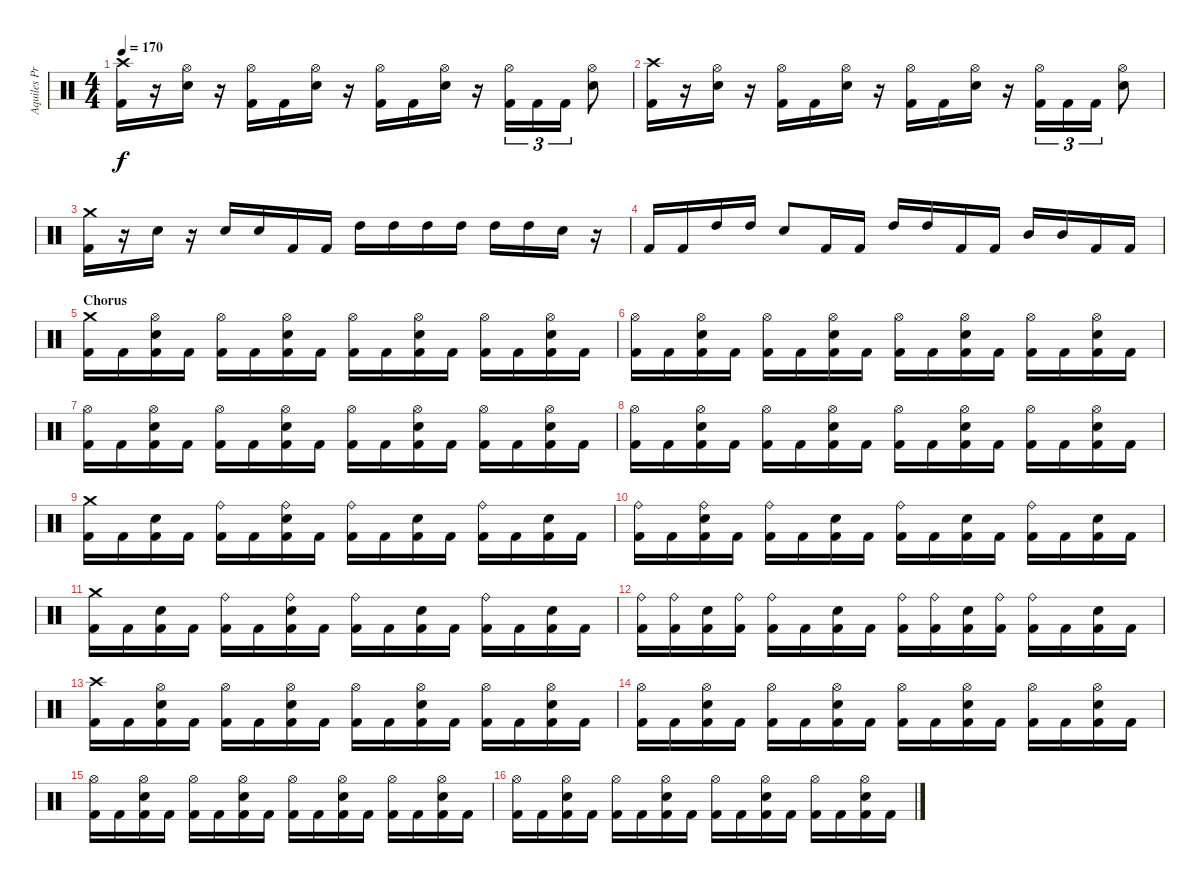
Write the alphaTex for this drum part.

\track ("Aquiles Priester" "Aquiles Pr") {instrument percussion}
\staff {score}
\articulation defaults
\ts (4 4)
\tempo 170
\clef neutral
\ks c
("Kick (hit) 2" "Crash high (hit)").16{dy f} r.16 ("Electric Snare (hit)" "Hi-Hat (open)").16 r.16 ("Kick (hit) 2" "Hi-Hat (open)").16 "Kick (hit) 2".16 ("Electric Snare (hit)" "Hi-Hat (open)").16 r.16 ("Kick (hit) 2" "Hi-Hat (open)").16 "Kick (hit) 2".16 ("Electric Snare (hit)" "Hi-Hat (open)").16 r.16 ("Hi-Hat (open)" "Kick (hit) 2").16{tu (3 2)} "Kick (hit) 2".16{tu (3 2)} "Kick (hit) 2".16{tu (3 2)} ("Hi-Hat (open)" "Electric Snare (hit)").8 |
("Crash high (hit)" "Kick (hit) 2").16 r.16 ("Hi-Hat (open)" "Electric Snare (hit)").16 r.16 ("Hi-Hat (open)" "Kick (hit) 2").16 "Kick (hit) 2".16 ("Hi-Hat (open)" "Electric Snare (hit)").16 r.16 ("Hi-Hat (open)" "Kick (hit) 2").16 "Kick (hit) 2".16 ("Hi-Hat (open)" "Electric Snare (hit)").16 r.16 ("Hi-Hat (open)" "Kick (hit) 2").16{tu (3 2)} "Kick (hit) 2".16{tu (3 2)} "Kick (hit) 2".16{tu (3 2)} ("Hi-Hat (open)" "Electric Snare (hit)").8 |
("Crash medium (hit)" "Kick (hit) 2").16 r.16 "Electric Snare (hit)".16 r.16 "Electric Snare (hit)".16 "Electric Snare (hit)".16 "Kick (hit) 2".16 "Kick (hit) 2".16 "High Tom (hit)".16 "High Tom (hit)".16 "High Tom (hit)".16 "High Tom (hit)".16 "High Tom (hit)".16 "High Tom (hit)".16 "Snare (hit) 2".16 r.16 |
"Kick (hit) 2".16 "Kick (hit) 2".16 "High Tom (hit)".16 "High Tom (hit)".16 "Electric Snare (hit)".8 "Kick (hit) 2".16 "Kick (hit) 2".16 "High Tom (hit)".16 "High Tom (hit)".16 "Kick (hit) 2".16 "Kick (hit) 2".16 "Mid Tom (hit)".16 "Mid Tom (hit)".16 "Kick (hit) 2".16 "Kick (hit) 2".16 |
\section ("" "Chorus")
("Crash medium (hit)" "Kick (hit) 2").16 "Kick (hit) 2".16 ("Hi-Hat (open)" "Electric Snare (hit)" "Kick (hit) 2").16 "Kick (hit) 2".16 ("Hi-Hat (open)" "Kick (hit) 2").16 "Kick (hit) 2".16 ("Hi-Hat (open)" "Electric Snare (hit)" "Kick (hit) 2").16 "Kick (hit) 2".16 ("Hi-Hat (open)" "Kick (hit) 2").16 "Kick (hit) 2".16 ("Hi-Hat (open)" "Electric Snare (hit)" "Kick (hit) 2").16 "Kick (hit) 2".16 ("Hi-Hat (open)" "Kick (hit) 2").16 "Kick (hit) 2".16 ("Hi-Hat (open)" "Electric Snare (hit)" "Kick (hit) 2").16 "Kick (hit) 2".16 |
("Hi-Hat (open)" "Kick (hit) 2").16 "Kick (hit) 2".16 ("Hi-Hat (open)" "Electric Snare (hit)" "Kick (hit) 2").16 "Kick (hit) 2".16 ("Hi-Hat (open)" "Kick (hit) 2").16 "Kick (hit) 2".16 ("Hi-Hat (open)" "Electric Snare (hit)" "Kick (hit) 2").16 "Kick (hit) 2".16 ("Hi-Hat (open)" "Kick (hit) 2").16 "Kick (hit) 2".16 ("Hi-Hat (open)" "Electric Snare (hit)" "Kick (hit) 2").16 "Kick (hit) 2".16 ("Hi-Hat (open)" "Kick (hit) 2").16 "Kick (hit) 2".16 ("Hi-Hat (open)" "Electric Snare (hit)" "Kick (hit) 2").16 "Kick (hit) 2".16 |
("Hi-Hat (open)" "Kick (hit) 2").16 "Kick (hit) 2".16 ("Hi-Hat (open)" "Electric Snare (hit)" "Kick (hit) 2").16 "Kick (hit) 2".16 ("Hi-Hat (open)" "Kick (hit) 2").16 "Kick (hit) 2".16 ("Hi-Hat (open)" "Electric Snare (hit)" "Kick (hit) 2").16 "Kick (hit) 2".16 ("Hi-Hat (open)" "Kick (hit) 2").16 "Kick (hit) 2".16 ("Hi-Hat (open)" "Electric Snare (hit)" "Kick (hit) 2").16 "Kick (hit) 2".16 ("Hi-Hat (open)" "Kick (hit) 2").16 "Kick (hit) 2".16 ("Hi-Hat (open)" "Electric Snare (hit)" "Kick (hit) 2").16 "Kick (hit) 2".16 |
("Hi-Hat (open)" "Kick (hit) 2").16 "Kick (hit) 2".16 ("Hi-Hat (open)" "Electric Snare (hit)" "Kick (hit) 2").16 "Kick (hit) 2".16 ("Hi-Hat (open)" "Kick (hit) 2").16 "Kick (hit) 2".16 ("Hi-Hat (open)" "Electric Snare (hit)" "Kick (hit) 2").16 "Kick (hit) 2".16 ("Hi-Hat (open)" "Kick (hit) 2").16 "Kick (hit) 2".16 ("Hi-Hat (open)" "Electric Snare (hit)" "Kick (hit) 2").16 "Kick (hit) 2".16 ("Hi-Hat (open)" "Kick (hit) 2").16 "Kick (hit) 2".16 ("Hi-Hat (open)" "Electric Snare (hit)" "Kick (hit) 2").16 "Kick (hit) 2".16 |
("Crash medium (hit)" "Kick (hit) 2").16 "Kick (hit) 2".16 ("Electric Snare (hit)" "Kick (hit) 2").16 "Kick (hit) 2".16 ("Ride (bell)" "Kick (hit) 2").16 "Kick (hit) 2".16 ("Ride (bell)" "Electric Snare (hit)" "Kick (hit) 2").16 "Kick (hit) 2".16 ("Ride (bell)" "Kick (hit) 2").16 "Kick (hit) 2".16 ("Electric Snare (hit)" "Kick (hit) 2").16 "Kick (hit) 2".16 ("Ride (bell)" "Kick (hit) 2").16 "Kick (hit) 2".16 ("Electric Snare (hit)" "Kick (hit) 2").16 "Kick (hit) 2".16 |
("Ride (bell)" "Kick (hit) 2").16 "Kick (hit) 2".16 ("Ride (bell)" "Electric Snare (hit)" "Kick (hit) 2").16 "Kick (hit) 2".16 ("Ride (bell)" "Kick (hit) 2").16 "Kick (hit) 2".16 ("Electric Snare (hit)" "Kick (hit) 2").16 "Kick (hit) 2".16 ("Ride (bell)" "Kick (hit) 2").16 "Kick (hit) 2".16 ("Electric Snare (hit)" "Kick (hit) 2").16 "Kick (hit) 2".16 ("Ride (bell)" "Kick (hit) 2").16 "Kick (hit) 2".16 ("Electric Snare (hit)" "Kick (hit) 2").16 "Kick (hit) 2".16 |
("Crash medium (hit)" "Kick (hit) 2").16 "Kick (hit) 2".16 ("Electric Snare (hit)" "Kick (hit) 2").16 "Kick (hit) 2".16 ("Ride (bell)" "Kick (hit) 2").16 "Kick (hit) 2".16 ("Ride (bell)" "Electric Snare (hit)" "Kick (hit) 2").16 "Kick (hit) 2".16 ("Ride (bell)" "Kick (hit) 2").16 "Kick (hit) 2".16 ("Electric Snare (hit)" "Kick (hit) 2").16 "Kick (hit) 2".16 ("Ride (bell)" "Kick (hit) 2").16 "Kick (hit) 2".16 ("Electric Snare (hit)" "Kick (hit) 2").16 "Kick (hit) 2".16 |
("Ride (bell)" "Kick (hit) 2").16 ("Ride (bell)" "Kick (hit) 2").16 ("Electric Snare (hit)" "Kick (hit) 2").16 ("Ride (bell)" "Kick (hit) 2").16 ("Ride (bell)" "Kick (hit) 2").16 "Kick (hit) 2".16 ("Electric Snare (hit)" "Kick (hit) 2").16 "Kick (hit) 2".16 ("Ride (bell)" "Kick (hit) 2").16 ("Ride (bell)" "Kick (hit) 2").16 ("Electric Snare (hit)" "Kick (hit) 2").16 ("Ride (bell)" "Kick (hit) 2").16 ("Ride (bell)" "Kick (hit) 2").16 "Kick (hit) 2".16 ("Electric Snare (hit)" "Kick (hit) 2").16 "Kick (hit) 2".16 |
("Crash high (hit)" "Kick (hit) 2").16 "Kick (hit) 2".16 ("Hi-Hat (open)" "Electric Snare (hit)" "Kick (hit) 2").16 "Kick (hit) 2".16 ("Hi-Hat (open)" "Kick (hit) 2").16 "Kick (hit) 2".16 ("Hi-Hat (open)" "Electric Snare (hit)" "Kick (hit) 2").16 "Kick (hit) 2".16 ("Hi-Hat (open)" "Kick (hit) 2").16 "Kick (hit) 2".16 ("Hi-Hat (open)" "Electric Snare (hit)" "Kick (hit) 2").16 "Kick (hit) 2".16 ("Hi-Hat (open)" "Kick (hit) 2").16 "Kick (hit) 2".16 ("Hi-Hat (open)" "Electric Snare (hit)" "Kick (hit) 2").16 "Kick (hit) 2".16 |
("Hi-Hat (open)" "Kick (hit) 2").16 "Kick (hit) 2".16 ("Hi-Hat (open)" "Electric Snare (hit)" "Kick (hit) 2").16 "Kick (hit) 2".16 ("Hi-Hat (open)" "Kick (hit) 2").16 "Kick (hit) 2".16 ("Hi-Hat (open)" "Electric Snare (hit)" "Kick (hit) 2").16 "Kick (hit) 2".16 ("Hi-Hat (open)" "Kick (hit) 2").16 "Kick (hit) 2".16 ("Hi-Hat (open)" "Electric Snare (hit)" "Kick (hit) 2").16 "Kick (hit) 2".16 ("Hi-Hat (open)" "Kick (hit) 2").16 "Kick (hit) 2".16 ("Hi-Hat (open)" "Electric Snare (hit)" "Kick (hit) 2").16 "Kick (hit) 2".16 |
("Hi-Hat (open)" "Kick (hit) 2").16 "Kick (hit) 2".16 ("Hi-Hat (open)" "Electric Snare (hit)" "Kick (hit) 2").16 "Kick (hit) 2".16 ("Hi-Hat (open)" "Kick (hit) 2").16 "Kick (hit) 2".16 ("Hi-Hat (open)" "Electric Snare (hit)" "Kick (hit) 2").16 "Kick (hit) 2".16 ("Hi-Hat (open)" "Kick (hit) 2").16 "Kick (hit) 2".16 ("Hi-Hat (open)" "Electric Snare (hit)" "Kick (hit) 2").16 "Kick (hit) 2".16 ("Hi-Hat (open)" "Kick (hit) 2").16 "Kick (hit) 2".16 ("Hi-Hat (open)" "Electric Snare (hit)" "Kick (hit) 2").16 "Kick (hit) 2".16 |
("Hi-Hat (open)" "Kick (hit) 2").16 "Kick (hit) 2".16 ("Hi-Hat (open)" "Electric Snare (hit)" "Kick (hit) 2").16 "Kick (hit) 2".16 ("Hi-Hat (open)" "Kick (hit) 2").16 "Kick (hit) 2".16 ("Hi-Hat (open)" "Electric Snare (hit)" "Kick (hit) 2").16 "Kick (hit) 2".16 ("Hi-Hat (open)" "Kick (hit) 2").16 "Kick (hit) 2".16 ("Hi-Hat (open)" "Electric Snare (hit)" "Kick (hit) 2").16 "Kick (hit) 2".16 ("Hi-Hat (open)" "Kick (hit) 2").16 "Kick (hit) 2".16 ("Hi-Hat (open)" "Electric Snare (hit)" "Kick (hit) 2").16 "Kick (hit) 2".16
